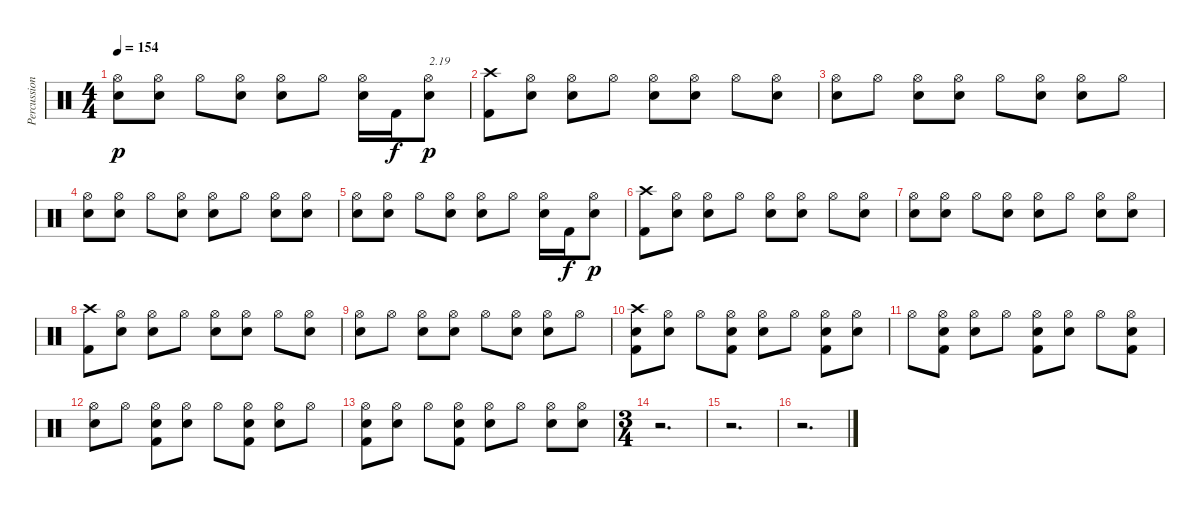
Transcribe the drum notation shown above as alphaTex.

\track ("Percussions" "Percussion") {instrument percussion}
\staff {score}
\articulation defaults
\ts (4 4)
\tempo 154
\clef neutral
\ks c
("Electric Snare (hit)" "Hi-Hat (open)").8{dy p} ("Electric Snare (hit)" "Hi-Hat (open)").8 "Hi-Hat (open)".8 ("Electric Snare (hit)" "Hi-Hat (open)").8 ("Electric Snare (hit)" "Hi-Hat (open)").8 "Hi-Hat (open)".8 ("Electric Snare (hit)" "Hi-Hat (open)").16 "Kick (hit) 2".16{dy f} ("Electric Snare (hit)" "Hi-Hat (open)").8{txt "2.19" dy p} |
("Kick (hit) 2" "Crash high (hit)").8 ("Electric Snare (hit)" "Hi-Hat (open)").8 ("Electric Snare (hit)" "Hi-Hat (open)").8 "Hi-Hat (open)".8 ("Electric Snare (hit)" "Hi-Hat (open)").8 ("Electric Snare (hit)" "Hi-Hat (open)").8 "Hi-Hat (open)".8 ("Electric Snare (hit)" "Hi-Hat (open)").8 |
("Electric Snare (hit)" "Hi-Hat (open)").8 "Hi-Hat (open)".8 ("Electric Snare (hit)" "Hi-Hat (open)").8 ("Electric Snare (hit)" "Hi-Hat (open)").8 "Hi-Hat (open)".8 ("Electric Snare (hit)" "Hi-Hat (open)").8 ("Electric Snare (hit)" "Hi-Hat (open)").8 "Hi-Hat (open)".8 |
("Electric Snare (hit)" "Hi-Hat (open)").8 ("Electric Snare (hit)" "Hi-Hat (open)").8 "Hi-Hat (open)".8 ("Electric Snare (hit)" "Hi-Hat (open)").8 ("Electric Snare (hit)" "Hi-Hat (open)").8 "Hi-Hat (open)".8 ("Electric Snare (hit)" "Hi-Hat (open)").8 ("Electric Snare (hit)" "Hi-Hat (open)").8 |
("Electric Snare (hit)" "Hi-Hat (open)").8 ("Electric Snare (hit)" "Hi-Hat (open)").8 "Hi-Hat (open)".8 ("Electric Snare (hit)" "Hi-Hat (open)").8 ("Electric Snare (hit)" "Hi-Hat (open)").8 "Hi-Hat (open)".8 ("Electric Snare (hit)" "Hi-Hat (open)").16 "Kick (hit) 2".16{dy f} ("Electric Snare (hit)" "Hi-Hat (open)").8{dy p} |
("Kick (hit) 2" "Crash high (hit)").8 ("Electric Snare (hit)" "Hi-Hat (open)").8 ("Electric Snare (hit)" "Hi-Hat (open)").8 "Hi-Hat (open)".8 ("Electric Snare (hit)" "Hi-Hat (open)").8 ("Electric Snare (hit)" "Hi-Hat (open)").8 "Hi-Hat (open)".8 ("Electric Snare (hit)" "Hi-Hat (open)").8 |
("Electric Snare (hit)" "Hi-Hat (open)").8 ("Electric Snare (hit)" "Hi-Hat (open)").8 "Hi-Hat (open)".8 ("Electric Snare (hit)" "Hi-Hat (open)").8 ("Electric Snare (hit)" "Hi-Hat (open)").8 "Hi-Hat (open)".8 ("Electric Snare (hit)" "Hi-Hat (open)").8 ("Electric Snare (hit)" "Hi-Hat (open)").8 |
("Kick (hit) 2" "Crash high (hit)").8 ("Electric Snare (hit)" "Hi-Hat (open)").8 ("Electric Snare (hit)" "Hi-Hat (open)").8 "Hi-Hat (open)".8 ("Electric Snare (hit)" "Hi-Hat (open)").8 ("Electric Snare (hit)" "Hi-Hat (open)").8 "Hi-Hat (open)".8 ("Electric Snare (hit)" "Hi-Hat (open)").8 |
("Electric Snare (hit)" "Hi-Hat (open)").8 "Hi-Hat (open)".8 ("Electric Snare (hit)" "Hi-Hat (open)").8 ("Electric Snare (hit)" "Hi-Hat (open)").8 "Hi-Hat (open)".8 ("Electric Snare (hit)" "Hi-Hat (open)").8 ("Electric Snare (hit)" "Hi-Hat (open)").8 "Hi-Hat (open)".8 |
("Kick (hit) 2" "Electric Snare (hit)" "Crash high (hit)").8 ("Electric Snare (hit)" "Hi-Hat (open)").8 "Hi-Hat (open)".8 ("Kick (hit) 2" "Electric Snare (hit)" "Hi-Hat (open)").8 ("Electric Snare (hit)" "Hi-Hat (open)").8 "Hi-Hat (open)".8 ("Kick (hit) 2" "Electric Snare (hit)" "Hi-Hat (open)").8 ("Electric Snare (hit)" "Hi-Hat (open)").8 |
"Hi-Hat (open)".8 ("Kick (hit) 2" "Electric Snare (hit)" "Hi-Hat (open)").8 ("Electric Snare (hit)" "Hi-Hat (open)").8 "Hi-Hat (open)".8 ("Kick (hit) 2" "Electric Snare (hit)" "Hi-Hat (open)").8 ("Electric Snare (hit)" "Hi-Hat (open)").8 "Hi-Hat (open)".8 ("Kick (hit) 2" "Electric Snare (hit)" "Hi-Hat (open)").8 |
("Electric Snare (hit)" "Hi-Hat (open)").8 "Hi-Hat (open)".8 ("Kick (hit) 2" "Electric Snare (hit)" "Hi-Hat (open)").8 ("Electric Snare (hit)" "Hi-Hat (open)").8 "Hi-Hat (open)".8 ("Kick (hit) 2" "Electric Snare (hit)" "Hi-Hat (open)").8 ("Electric Snare (hit)" "Hi-Hat (open)").8 "Hi-Hat (open)".8 |
("Kick (hit) 2" "Electric Snare (hit)" "Hi-Hat (open)").8 ("Electric Snare (hit)" "Hi-Hat (open)").8 "Hi-Hat (open)".8 ("Kick (hit) 2" "Electric Snare (hit)" "Hi-Hat (open)").8 ("Electric Snare (hit)" "Hi-Hat (open)").8 "Hi-Hat (open)".8 ("Electric Snare (hit)" "Hi-Hat (open)").8 ("Electric Snare (hit)" "Hi-Hat (open)").8 |
\ts (3 4)
r.2{d} |
r.2{d} |
r.2{d}
